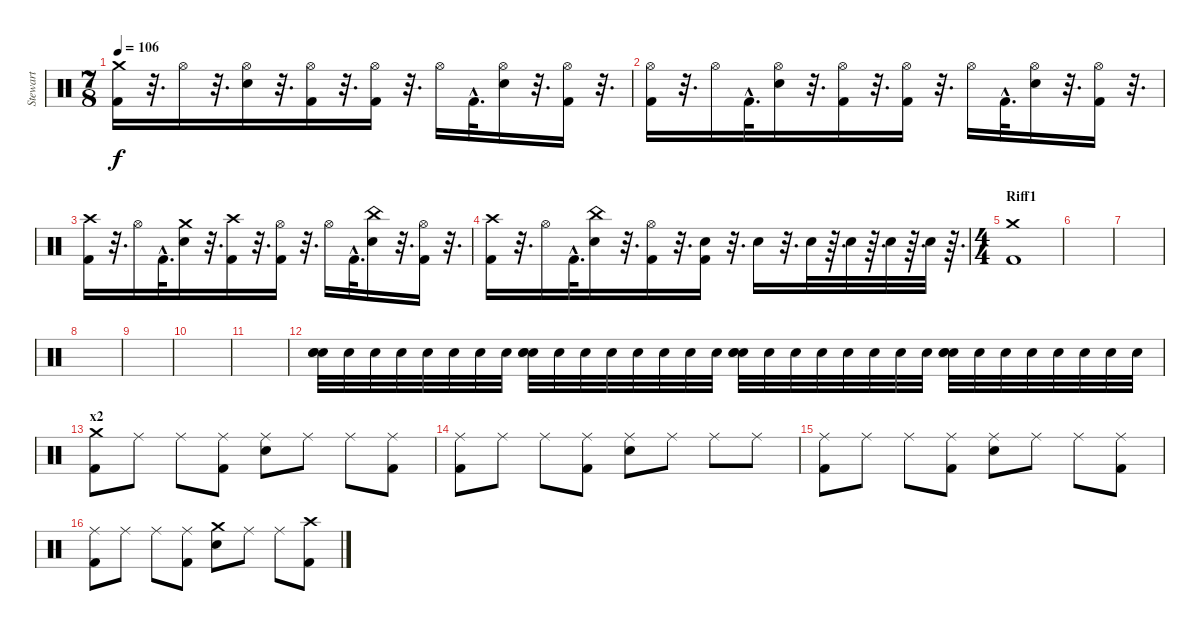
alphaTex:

\track ("Stewart" "Stewart") {instrument percussion}
\staff {score}
\articulation defaults
\ts (7 8)
\tempo 106
\clef neutral
\ks c
("Crash medium (hit)" "Kick (hit) 2").16{dy f} r.32{d} "Hi-Hat (open)".16 r.32{d} ("Hi-Hat (open)" "Electric Snare (hit)").16 r.32{d} ("Hi-Hat (open)" "Kick (hit) 2").16 r.32{d} ("Hi-Hat (open)" "Kick (hit) 2").16 r.32{d} "Hi-Hat (open)".16 "Kick (hit) 2"{hac}.32{d} ("Hi-Hat (open)" "Electric Snare (hit)").16 r.32{d} ("Hi-Hat (open)" "Kick (hit) 2").16 r.32{d} |
("Hi-Hat (open)" "Kick (hit) 2").16 r.32{d} "Hi-Hat (open)".16 "Kick (hit) 2"{hac}.32{d} ("Hi-Hat (open)" "Electric Snare (hit)").16 r.32{d} ("Hi-Hat (open)" "Kick (hit) 2").16 r.32{d} ("Hi-Hat (open)" "Kick (hit) 2").16 r.32{d} "Hi-Hat (open)".16 "Kick (hit) 2"{hac}.32{d} ("Hi-Hat (open)" "Electric Snare (hit)").16 r.32{d} ("Hi-Hat (open)" "Kick (hit) 2").16 r.32{d} |
("Crash high (hit)" "Kick (hit) 2").16 r.32{d} "Hi-Hat (open)".16 "Kick (hit) 2"{hac}.32{d} ("Crash medium (hit)" "Electric Snare (hit)").16 r.32{d} ("Crash high (hit)" "Kick (hit) 2").16 r.32{d} ("Hi-Hat (open)" "Kick (hit) 2").16 r.32{d} "Hi-Hat (open)".16 "Kick (hit) 2"{hac}.32{d} ("China (hit)" "Electric Snare (hit)").16 r.32{d} ("Hi-Hat (open)" "Kick (hit) 2").16 r.32{d} |
("Crash high (hit)" "Kick (hit) 2").16 r.32{d} "Hi-Hat (open)".16 "Kick (hit) 2"{hac}.32{d} ("China (hit)" "Electric Snare (hit)").16 r.32{d} ("Hi-Hat (open)" "Kick (hit) 2").16 r.32{d} ("Electric Snare (hit)" "Kick (hit) 2").16 r.32{d} "Electric Snare (hit)".16 r.32{d} "Electric Snare (hit)".32 r.64{d} "Electric Snare (hit)".32 r.64{d} "Electric Snare (hit)".32 r.64{d} "Electric Snare (hit)".32 r.64{d} |
\ts (4 4)
\section ("" "Riff1")
("Crash medium (hit)" "Kick (hit) 2").1 |
|
|
|
|
|
|
("Electric Snare (hit)" "Electric Snare (hit)" "Electric Snare (hit)").32{volume 1} "Electric Snare (hit)".32{volume 16} "Electric Snare (hit)".32 "Electric Snare (hit)".32 "Electric Snare (hit)".32 "Electric Snare (hit)".32 "Electric Snare (hit)".32 "Electric Snare (hit)".32 ("Electric Snare (hit)" "Electric Snare (hit)" "Electric Snare (hit)").32 "Electric Snare (hit)".32 "Electric Snare (hit)".32 "Electric Snare (hit)".32 "Electric Snare (hit)".32 "Electric Snare (hit)".32 "Electric Snare (hit)".32 "Electric Snare (hit)".32 ("Electric Snare (hit)" "Electric Snare (hit)" "Electric Snare (hit)").32 "Electric Snare (hit)".32 "Electric Snare (hit)".32 "Electric Snare (hit)".32 "Electric Snare (hit)".32 "Electric Snare (hit)".32 "Electric Snare (hit)".32 "Electric Snare (hit)".32 ("Electric Snare (hit)" "Electric Snare (hit)" "Electric Snare (hit)").32 "Electric Snare (hit)".32 "Electric Snare (hit)".32 "Electric Snare (hit)".32 "Electric Snare (hit)".32 "Electric Snare (hit)".32 "Electric Snare (hit)".32 "Electric Snare (hit)".32 |
\section ("" "x2")
("Crash medium (hit)" "Kick (hit) 2").8 "Ride (middle)".8 "Ride (middle)".8 ("Ride (middle)" "Kick (hit) 2").8 ("Ride (middle)" "Electric Snare (hit)").8 "Ride (middle)".8 "Ride (middle)".8 ("Ride (middle)" "Kick (hit) 2").8 |
("Ride (middle)" "Kick (hit) 2").8 "Ride (middle)".8 "Ride (middle)".8 ("Ride (middle)" "Kick (hit) 2").8 ("Ride (middle)" "Electric Snare (hit)").8 "Ride (middle)".8 "Ride (middle)".8 "Ride (middle)".8 |
("Ride (middle)" "Kick (hit) 2").8 "Ride (middle)".8 "Ride (middle)".8 ("Ride (middle)" "Kick (hit) 2").8 ("Ride (middle)" "Electric Snare (hit)").8 "Ride (middle)".8 "Ride (middle)".8 ("Ride (middle)" "Kick (hit) 2").8 |
("Ride (middle)" "Kick (hit) 2").8 "Ride (middle)".8 "Ride (middle)".8 ("Ride (middle)" "Kick (hit) 2").8 ("Crash medium (hit)" "Electric Snare (hit)").8 "Ride (middle)".8 "Ride (middle)".8 ("Crash high (hit)" "Kick (hit) 2").8
